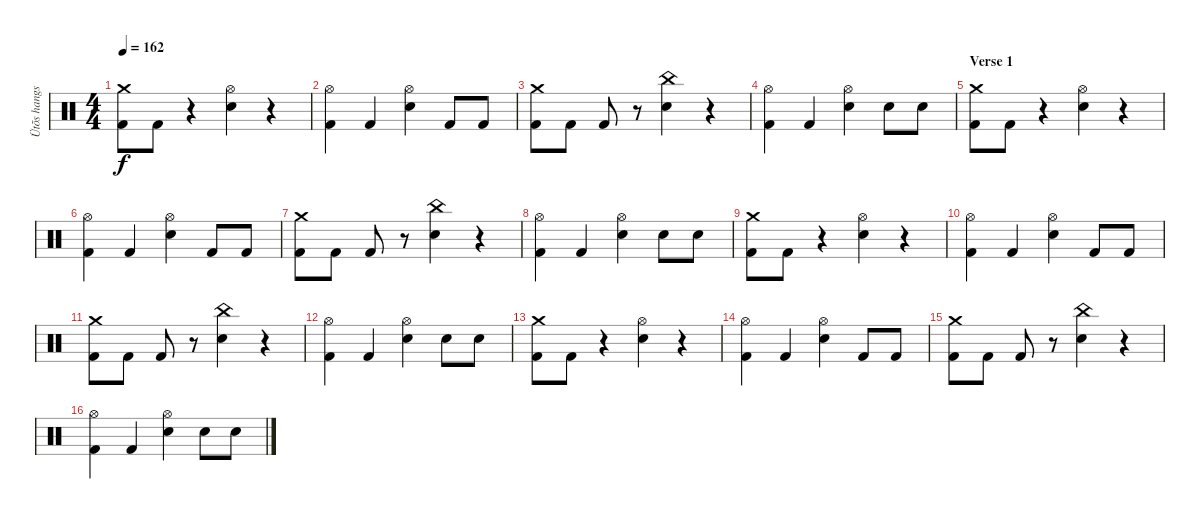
\track ("Ütõs hangszer" "Ütõs hangs") {instrument percussion}
\staff {score}
\articulation defaults
\ts (4 4)
\tempo 162
\clef neutral
\ks c
("Crash medium (hit)" "Kick (hit) 2").8{dy f} "Kick (hit) 2".8 r.4 ("Hi-Hat (open)" "Electric Snare (hit)").4 r.4 |
("Hi-Hat (open)" "Kick (hit) 2").4 "Kick (hit) 2".4 ("Hi-Hat (open)" "Electric Snare (hit)").4 "Kick (hit) 2".8 "Kick (hit) 2".8 |
("Crash medium (hit)" "Kick (hit) 2").8 "Kick (hit) 2".8 "Kick (hit) 2".8 r.8 ("China (hit)" "Electric Snare (hit)").4 r.4 |
("Hi-Hat (open)" "Kick (hit) 2").4 "Kick (hit) 2".4 ("Hi-Hat (open)" "Electric Snare (hit)").4 "Electric Snare (hit)".8 "Electric Snare (hit)".8 |
\section ("" "Verse 1")
("Crash medium (hit)" "Kick (hit) 2").8 "Kick (hit) 2".8 r.4 ("Hi-Hat (open)" "Electric Snare (hit)").4 r.4 |
("Hi-Hat (open)" "Kick (hit) 2").4 "Kick (hit) 2".4 ("Hi-Hat (open)" "Electric Snare (hit)").4 "Kick (hit) 2".8 "Kick (hit) 2".8 |
("Crash medium (hit)" "Kick (hit) 2").8 "Kick (hit) 2".8 "Kick (hit) 2".8 r.8 ("China (hit)" "Electric Snare (hit)").4 r.4 |
("Hi-Hat (open)" "Kick (hit) 2").4 "Kick (hit) 2".4 ("Hi-Hat (open)" "Electric Snare (hit)").4 "Electric Snare (hit)".8 "Electric Snare (hit)".8 |
("Crash medium (hit)" "Kick (hit) 2").8 "Kick (hit) 2".8 r.4 ("Hi-Hat (open)" "Electric Snare (hit)").4 r.4 |
("Hi-Hat (open)" "Kick (hit) 2").4 "Kick (hit) 2".4 ("Hi-Hat (open)" "Electric Snare (hit)").4 "Kick (hit) 2".8 "Kick (hit) 2".8 |
("Crash medium (hit)" "Kick (hit) 2").8 "Kick (hit) 2".8 "Kick (hit) 2".8 r.8 ("China (hit)" "Electric Snare (hit)").4 r.4 |
("Hi-Hat (open)" "Kick (hit) 2").4 "Kick (hit) 2".4 ("Hi-Hat (open)" "Electric Snare (hit)").4 "Electric Snare (hit)".8 "Electric Snare (hit)".8 |
("Crash medium (hit)" "Kick (hit) 2").8 "Kick (hit) 2".8 r.4 ("Hi-Hat (open)" "Electric Snare (hit)").4 r.4 |
("Hi-Hat (open)" "Kick (hit) 2").4 "Kick (hit) 2".4 ("Hi-Hat (open)" "Electric Snare (hit)").4 "Kick (hit) 2".8 "Kick (hit) 2".8 |
("Crash medium (hit)" "Kick (hit) 2").8 "Kick (hit) 2".8 "Kick (hit) 2".8 r.8 ("China (hit)" "Electric Snare (hit)").4 r.4 |
("Hi-Hat (open)" "Kick (hit) 2").4 "Kick (hit) 2".4 ("Hi-Hat (open)" "Electric Snare (hit)").4 "Electric Snare (hit)".8 "Electric Snare (hit)".8
